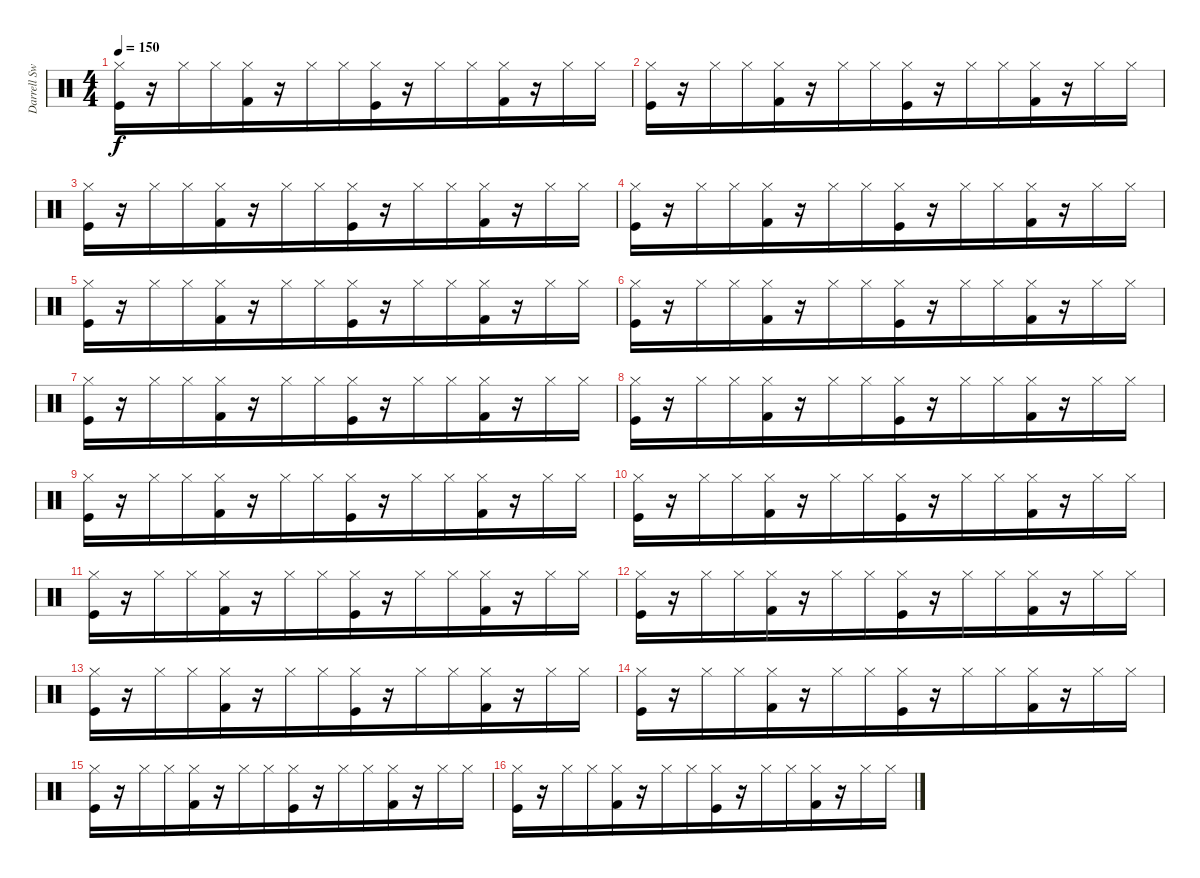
\track ("Darrell Sweet (drums)" "Darrell Sw") {instrument percussion}
\staff {score}
\articulation defaults
\ts (4 4)
\tempo 150
\clef neutral
\ks c
("Hi-Hat (closed)" "Kick (hit)").16{dy f} r.16 "Hi-Hat (closed)".16 "Hi-Hat (closed)".16{beam merge} ("Hi-Hat (closed)" "Kick (hit) 2").16 r.16 "Hi-Hat (closed)".16 "Hi-Hat (closed)".16{beam merge} ("Hi-Hat (closed)" "Kick (hit)").16 r.16 "Hi-Hat (closed)".16 "Hi-Hat (closed)".16{beam merge} ("Hi-Hat (closed)" "Kick (hit) 2").16 r.16 "Hi-Hat (closed)".16 "Hi-Hat (closed)".16 |
("Hi-Hat (closed)" "Kick (hit)").16 r.16 "Hi-Hat (closed)".16 "Hi-Hat (closed)".16{beam merge} ("Hi-Hat (closed)" "Kick (hit) 2").16 r.16 "Hi-Hat (closed)".16 "Hi-Hat (closed)".16{beam merge} ("Hi-Hat (closed)" "Kick (hit)").16 r.16 "Hi-Hat (closed)".16 "Hi-Hat (closed)".16{beam merge} ("Hi-Hat (closed)" "Kick (hit) 2").16 r.16 "Hi-Hat (closed)".16 "Hi-Hat (closed)".16 |
("Hi-Hat (closed)" "Kick (hit)").16 r.16 "Hi-Hat (closed)".16 "Hi-Hat (closed)".16{beam merge} ("Hi-Hat (closed)" "Kick (hit) 2").16 r.16 "Hi-Hat (closed)".16 "Hi-Hat (closed)".16{beam merge} ("Hi-Hat (closed)" "Kick (hit)").16 r.16 "Hi-Hat (closed)".16 "Hi-Hat (closed)".16{beam merge} ("Hi-Hat (closed)" "Kick (hit) 2").16 r.16 "Hi-Hat (closed)".16 "Hi-Hat (closed)".16 |
("Hi-Hat (closed)" "Kick (hit)").16 r.16 "Hi-Hat (closed)".16 "Hi-Hat (closed)".16{beam merge} ("Hi-Hat (closed)" "Kick (hit) 2").16 r.16 "Hi-Hat (closed)".16 "Hi-Hat (closed)".16{beam merge} ("Hi-Hat (closed)" "Kick (hit)").16 r.16 "Hi-Hat (closed)".16 "Hi-Hat (closed)".16{beam merge} ("Hi-Hat (closed)" "Kick (hit) 2").16 r.16 "Hi-Hat (closed)".16 "Hi-Hat (closed)".16 |
("Hi-Hat (closed)" "Kick (hit)").16 r.16 "Hi-Hat (closed)".16 "Hi-Hat (closed)".16{beam merge} ("Hi-Hat (closed)" "Kick (hit) 2").16 r.16 "Hi-Hat (closed)".16 "Hi-Hat (closed)".16{beam merge} ("Hi-Hat (closed)" "Kick (hit)").16 r.16 "Hi-Hat (closed)".16 "Hi-Hat (closed)".16{beam merge} ("Hi-Hat (closed)" "Kick (hit) 2").16 r.16 "Hi-Hat (closed)".16 "Hi-Hat (closed)".16 |
("Hi-Hat (closed)" "Kick (hit)").16 r.16 "Hi-Hat (closed)".16 "Hi-Hat (closed)".16{beam merge} ("Hi-Hat (closed)" "Kick (hit) 2").16 r.16 "Hi-Hat (closed)".16 "Hi-Hat (closed)".16{beam merge} ("Hi-Hat (closed)" "Kick (hit)").16 r.16 "Hi-Hat (closed)".16 "Hi-Hat (closed)".16{beam merge} ("Hi-Hat (closed)" "Kick (hit) 2").16 r.16 "Hi-Hat (closed)".16 "Hi-Hat (closed)".16 |
("Hi-Hat (closed)" "Kick (hit)").16 r.16 "Hi-Hat (closed)".16 "Hi-Hat (closed)".16{beam merge} ("Hi-Hat (closed)" "Kick (hit) 2").16 r.16 "Hi-Hat (closed)".16 "Hi-Hat (closed)".16{beam merge} ("Hi-Hat (closed)" "Kick (hit)").16 r.16 "Hi-Hat (closed)".16 "Hi-Hat (closed)".16{beam merge} ("Hi-Hat (closed)" "Kick (hit) 2").16 r.16 "Hi-Hat (closed)".16 "Hi-Hat (closed)".16 |
("Hi-Hat (closed)" "Kick (hit)").16 r.16 "Hi-Hat (closed)".16 "Hi-Hat (closed)".16{beam merge} ("Hi-Hat (closed)" "Kick (hit) 2").16 r.16 "Hi-Hat (closed)".16 "Hi-Hat (closed)".16{beam merge} ("Hi-Hat (closed)" "Kick (hit)").16 r.16 "Hi-Hat (closed)".16 "Hi-Hat (closed)".16{beam merge} ("Hi-Hat (closed)" "Kick (hit) 2").16 r.16 "Hi-Hat (closed)".16 "Hi-Hat (closed)".16 |
("Hi-Hat (closed)" "Kick (hit)").16 r.16 "Hi-Hat (closed)".16 "Hi-Hat (closed)".16{beam merge} ("Hi-Hat (closed)" "Kick (hit) 2").16 r.16 "Hi-Hat (closed)".16 "Hi-Hat (closed)".16{beam merge} ("Hi-Hat (closed)" "Kick (hit)").16 r.16 "Hi-Hat (closed)".16 "Hi-Hat (closed)".16{beam merge} ("Hi-Hat (closed)" "Kick (hit) 2").16 r.16 "Hi-Hat (closed)".16 "Hi-Hat (closed)".16 |
("Hi-Hat (closed)" "Kick (hit)").16 r.16 "Hi-Hat (closed)".16 "Hi-Hat (closed)".16{beam merge} ("Hi-Hat (closed)" "Kick (hit) 2").16 r.16 "Hi-Hat (closed)".16 "Hi-Hat (closed)".16{beam merge} ("Hi-Hat (closed)" "Kick (hit)").16 r.16 "Hi-Hat (closed)".16 "Hi-Hat (closed)".16{beam merge} ("Hi-Hat (closed)" "Kick (hit) 2").16 r.16 "Hi-Hat (closed)".16 "Hi-Hat (closed)".16 |
("Hi-Hat (closed)" "Kick (hit)").16 r.16 "Hi-Hat (closed)".16 "Hi-Hat (closed)".16{beam merge} ("Hi-Hat (closed)" "Kick (hit) 2").16 r.16 "Hi-Hat (closed)".16 "Hi-Hat (closed)".16{beam merge} ("Hi-Hat (closed)" "Kick (hit)").16 r.16 "Hi-Hat (closed)".16 "Hi-Hat (closed)".16{beam merge} ("Hi-Hat (closed)" "Kick (hit) 2").16 r.16 "Hi-Hat (closed)".16 "Hi-Hat (closed)".16 |
("Hi-Hat (closed)" "Kick (hit)").16 r.16 "Hi-Hat (closed)".16 "Hi-Hat (closed)".16{beam merge} ("Hi-Hat (closed)" "Kick (hit) 2").16 r.16 "Hi-Hat (closed)".16 "Hi-Hat (closed)".16{beam merge} ("Hi-Hat (closed)" "Kick (hit)").16 r.16 "Hi-Hat (closed)".16 "Hi-Hat (closed)".16{beam merge} ("Hi-Hat (closed)" "Kick (hit) 2").16 r.16 "Hi-Hat (closed)".16 "Hi-Hat (closed)".16 |
("Hi-Hat (closed)" "Kick (hit)").16 r.16 "Hi-Hat (closed)".16 "Hi-Hat (closed)".16{beam merge} ("Hi-Hat (closed)" "Kick (hit) 2").16 r.16 "Hi-Hat (closed)".16 "Hi-Hat (closed)".16{beam merge} ("Hi-Hat (closed)" "Kick (hit)").16 r.16 "Hi-Hat (closed)".16 "Hi-Hat (closed)".16{beam merge} ("Hi-Hat (closed)" "Kick (hit) 2").16 r.16 "Hi-Hat (closed)".16 "Hi-Hat (closed)".16 |
("Hi-Hat (closed)" "Kick (hit)").16 r.16 "Hi-Hat (closed)".16 "Hi-Hat (closed)".16{beam merge} ("Hi-Hat (closed)" "Kick (hit) 2").16 r.16 "Hi-Hat (closed)".16 "Hi-Hat (closed)".16{beam merge} ("Hi-Hat (closed)" "Kick (hit)").16 r.16 "Hi-Hat (closed)".16 "Hi-Hat (closed)".16{beam merge} ("Hi-Hat (closed)" "Kick (hit) 2").16 r.16 "Hi-Hat (closed)".16 "Hi-Hat (closed)".16 |
("Hi-Hat (closed)" "Kick (hit)").16 r.16 "Hi-Hat (closed)".16 "Hi-Hat (closed)".16{beam merge} ("Hi-Hat (closed)" "Kick (hit) 2").16 r.16 "Hi-Hat (closed)".16 "Hi-Hat (closed)".16{beam merge} ("Hi-Hat (closed)" "Kick (hit)").16 r.16 "Hi-Hat (closed)".16 "Hi-Hat (closed)".16{beam merge} ("Hi-Hat (closed)" "Kick (hit) 2").16 r.16 "Hi-Hat (closed)".16 "Hi-Hat (closed)".16 |
("Hi-Hat (closed)" "Kick (hit)").16 r.16 "Hi-Hat (closed)".16 "Hi-Hat (closed)".16{beam merge} ("Hi-Hat (closed)" "Kick (hit) 2").16 r.16 "Hi-Hat (closed)".16 "Hi-Hat (closed)".16{beam merge} ("Hi-Hat (closed)" "Kick (hit)").16 r.16 "Hi-Hat (closed)".16 "Hi-Hat (closed)".16{beam merge} ("Hi-Hat (closed)" "Kick (hit) 2").16 r.16 "Hi-Hat (closed)".16 "Hi-Hat (closed)".16
